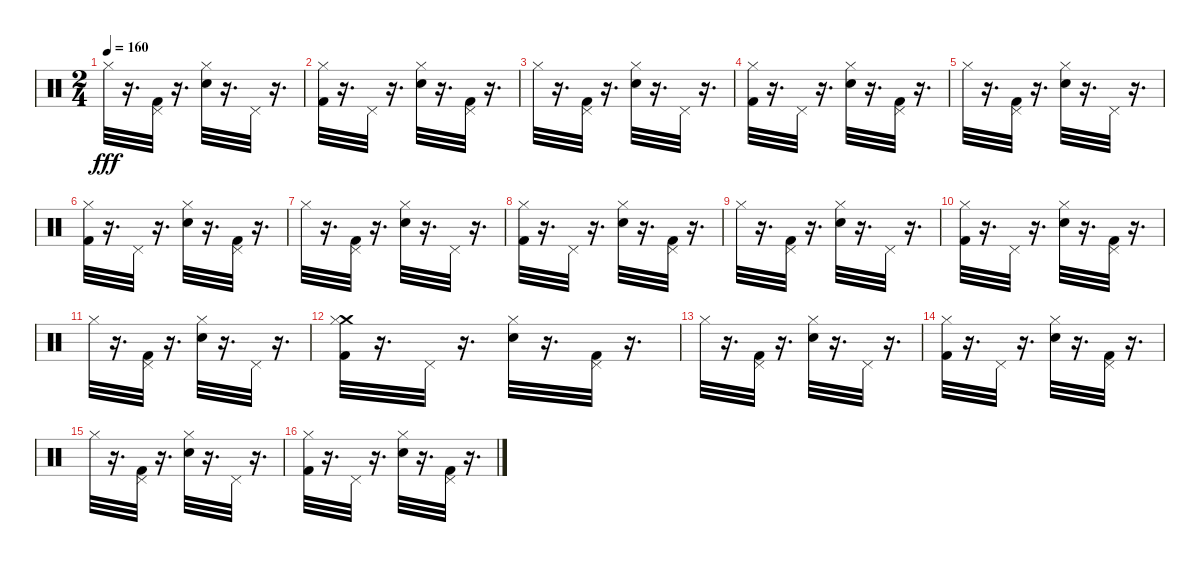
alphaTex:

\track "" {instrument percussion}
\staff {score}
\articulation defaults
\ts (2 4)
\tempo 160
\clef neutral
\ks c "Hi-Hat (closed)".32{dy fff}
r.16{d} ("Pedal Hi-Hat (hit)" "Kick (hit) 2").32 r.16{d} ("Hi-Hat (closed)" "Snare (hit) 2").32 r.16{d} "Pedal Hi-Hat (hit)".32 r.16{d} |
("Hi-Hat (closed)" "Kick (hit) 2").32 r.16{d} "Pedal Hi-Hat (hit)".32 r.16{d} ("Hi-Hat (closed)" "Snare (hit) 2").32 r.16{d} ("Pedal Hi-Hat (hit)" "Kick (hit) 2").32 r.16{d} |
"Hi-Hat (closed)".32 r.16{d} ("Pedal Hi-Hat (hit)" "Kick (hit) 2").32 r.16{d} ("Hi-Hat (closed)" "Snare (hit) 2").32 r.16{d} "Pedal Hi-Hat (hit)".32 r.16{d} |
("Hi-Hat (closed)" "Kick (hit) 2").32 r.16{d} "Pedal Hi-Hat (hit)".32 r.16{d} ("Hi-Hat (closed)" "Snare (hit) 2").32 r.16{d} ("Pedal Hi-Hat (hit)" "Kick (hit) 2").32 r.16{d} |
"Hi-Hat (closed)".32 r.16{d} ("Pedal Hi-Hat (hit)" "Kick (hit) 2").32 r.16{d} ("Hi-Hat (closed)" "Snare (hit) 2").32 r.16{d} "Pedal Hi-Hat (hit)".32 r.16{d} |
("Hi-Hat (closed)" "Kick (hit) 2").32 r.16{d} "Pedal Hi-Hat (hit)".32 r.16{d} ("Hi-Hat (closed)" "Snare (hit) 2").32 r.16{d} ("Pedal Hi-Hat (hit)" "Kick (hit) 2").32 r.16{d} |
"Hi-Hat (closed)".32 r.16{d} ("Pedal Hi-Hat (hit)" "Kick (hit) 2").32 r.16{d} ("Hi-Hat (closed)" "Snare (hit) 2").32 r.16{d} "Pedal Hi-Hat (hit)".32 r.16{d} |
("Hi-Hat (closed)" "Kick (hit) 2").32 r.16{d} "Pedal Hi-Hat (hit)".32 r.16{d} ("Hi-Hat (closed)" "Snare (hit) 2").32 r.16{d} ("Pedal Hi-Hat (hit)" "Kick (hit) 2").32 r.16{d} |
"Hi-Hat (closed)".32 r.16{d} ("Pedal Hi-Hat (hit)" "Kick (hit) 2").32 r.16{d} ("Hi-Hat (closed)" "Snare (hit) 2").32 r.16{d} "Pedal Hi-Hat (hit)".32 r.16{d} |
("Hi-Hat (closed)" "Kick (hit) 2").32 r.16{d} "Pedal Hi-Hat (hit)".32 r.16{d} ("Hi-Hat (closed)" "Snare (hit) 2").32 r.16{d} ("Pedal Hi-Hat (hit)" "Kick (hit) 2").32 r.16{d} |
"Hi-Hat (closed)".32 r.16{d} ("Pedal Hi-Hat (hit)" "Kick (hit) 2").32 r.16{d} ("Hi-Hat (closed)" "Snare (hit) 2").32 r.16{d} "Pedal Hi-Hat (hit)".32 r.16{d} |
("Crash medium (hit)" "Hi-Hat (closed)" "Kick (hit) 2").32 r.16{d} "Pedal Hi-Hat (hit)".32 r.16{d} ("Hi-Hat (closed)" "Snare (hit) 2").32 r.16{d} ("Pedal Hi-Hat (hit)" "Kick (hit) 2").32 r.16{d} |
"Hi-Hat (closed)".32 r.16{d} ("Pedal Hi-Hat (hit)" "Kick (hit) 2").32 r.16{d} ("Hi-Hat (closed)" "Snare (hit) 2").32 r.16{d} "Pedal Hi-Hat (hit)".32 r.16{d} |
("Hi-Hat (closed)" "Kick (hit) 2").32 r.16{d} "Pedal Hi-Hat (hit)".32 r.16{d} ("Hi-Hat (closed)" "Snare (hit) 2").32 r.16{d} ("Pedal Hi-Hat (hit)" "Kick (hit) 2").32 r.16{d} |
"Hi-Hat (closed)".32 r.16{d} ("Pedal Hi-Hat (hit)" "Kick (hit) 2").32 r.16{d} ("Hi-Hat (closed)" "Snare (hit) 2").32 r.16{d} "Pedal Hi-Hat (hit)".32 r.16{d} |
("Hi-Hat (closed)" "Kick (hit) 2").32 r.16{d} "Pedal Hi-Hat (hit)".32 r.16{d} ("Hi-Hat (closed)" "Snare (hit) 2").32 r.16{d} ("Pedal Hi-Hat (hit)" "Kick (hit) 2").32 r.16{d}
